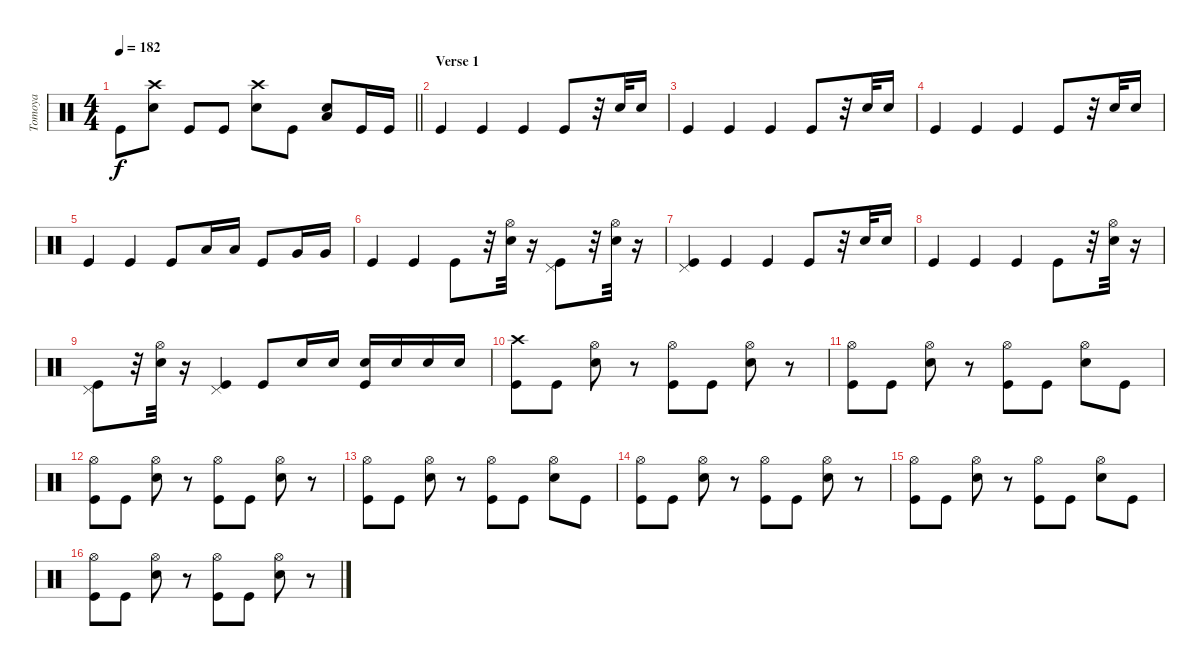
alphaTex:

\track ("Tomoya" "Tomoya") {instrument percussion}
\staff {score}
\articulation defaults
\ts (4 4)
\tempo 182
\clef neutral
\barLineRight lightlight
\ks c "Kick (hit)".8{dy f}
("Crash high (hit)" "Snare (hit) 2").8 "Kick (hit)".8 "Kick (hit)".8 ("Crash high (hit)" "Snare (hit) 2").8 "Kick (hit)".8 ("Low Tom (hit)" "Snare (hit) 2").8 "Kick (hit)".16 "Kick (hit)".16 |
\section ("" "Verse 1")
"Kick (hit)".4 "Kick (hit)".4 "Kick (hit)".4 "Kick (hit)".8 r.32 "Snare (hit) 2".32 "Snare (hit) 2".16 |
"Kick (hit)".4 "Kick (hit)".4 "Kick (hit)".4 "Kick (hit)".8 r.32 "Snare (hit) 2".32 "Snare (hit) 2".16 |
"Kick (hit)".4 "Kick (hit)".4 "Kick (hit)".4 "Kick (hit)".8 r.32 "Snare (hit) 2".32 "Snare (hit) 2".16 |
"Kick (hit)".4 "Kick (hit)".4 "Kick (hit)".8 "Low Tom (hit)".16 "Low Tom (hit)".16 "Kick (hit)".8 "Very Low Tom (hit)".16 "Very Low Tom (hit)".16 |
"Kick (hit)".4 "Kick (hit)".4 "Kick (hit)".8 r.32 ("Hi-Hat (open)" "Snare (hit) 2").32 r.16 ("Pedal Hi-Hat (hit)" "Kick (hit)").8 r.32 ("Hi-Hat (open)" "Snare (hit) 2").32 r.16 |
("Pedal Hi-Hat (hit)" "Kick (hit)").4 "Kick (hit)".4 "Kick (hit)".4 "Kick (hit)".8 r.32 "Snare (hit) 2".32 "Snare (hit) 2".16 |
"Kick (hit)".4 "Kick (hit)".4 "Kick (hit)".4 "Kick (hit)".8 r.32 ("Hi-Hat (open)" "Snare (hit) 2").32 r.16 |
("Pedal Hi-Hat (hit)" "Kick (hit)").8 r.32 ("Hi-Hat (open)" "Snare (hit) 2").32 r.16 ("Pedal Hi-Hat (hit)" "Kick (hit)").4 "Kick (hit)".8 "Snare (hit) 2".16 "Snare (hit) 2".16 ("Snare (hit) 2" "Kick (hit)").16 "Snare (hit) 2".16 "Snare (hit) 2".16 "Snare (hit) 2".16 |
("Crash high (hit)" "Kick (hit)").8 "Kick (hit)".8 ("Hi-Hat (open)" "Snare (hit) 2").8 r.8 ("Hi-Hat (open)" "Kick (hit)").8 "Kick (hit)".8 ("Hi-Hat (open)" "Snare (hit) 2").8 r.8 |
("Hi-Hat (open)" "Kick (hit)").8 "Kick (hit)".8 ("Hi-Hat (open)" "Snare (hit) 2").8 r.8 ("Hi-Hat (open)" "Kick (hit)").8 "Kick (hit)".8 ("Hi-Hat (open)" "Snare (hit) 2").8 "Kick (hit)".8 |
("Hi-Hat (open)" "Kick (hit)").8 "Kick (hit)".8 ("Hi-Hat (open)" "Snare (hit) 2").8 r.8 ("Hi-Hat (open)" "Kick (hit)").8 "Kick (hit)".8 ("Hi-Hat (open)" "Snare (hit) 2").8 r.8 |
("Hi-Hat (open)" "Kick (hit)").8 "Kick (hit)".8 ("Hi-Hat (open)" "Snare (hit) 2").8 r.8 ("Hi-Hat (open)" "Kick (hit)").8 "Kick (hit)".8 ("Hi-Hat (open)" "Snare (hit) 2").8 "Kick (hit)".8 |
("Hi-Hat (open)" "Kick (hit)").8 "Kick (hit)".8 ("Hi-Hat (open)" "Snare (hit) 2").8 r.8 ("Hi-Hat (open)" "Kick (hit)").8 "Kick (hit)".8 ("Hi-Hat (open)" "Snare (hit) 2").8 r.8 |
("Hi-Hat (open)" "Kick (hit)").8 "Kick (hit)".8 ("Hi-Hat (open)" "Snare (hit) 2").8 r.8 ("Hi-Hat (open)" "Kick (hit)").8 "Kick (hit)".8 ("Hi-Hat (open)" "Snare (hit) 2").8 "Kick (hit)".8 |
("Hi-Hat (open)" "Kick (hit)").8 "Kick (hit)".8 ("Hi-Hat (open)" "Snare (hit) 2").8 r.8 ("Hi-Hat (open)" "Kick (hit)").8 "Kick (hit)".8 ("Hi-Hat (open)" "Snare (hit) 2").8 r.8
